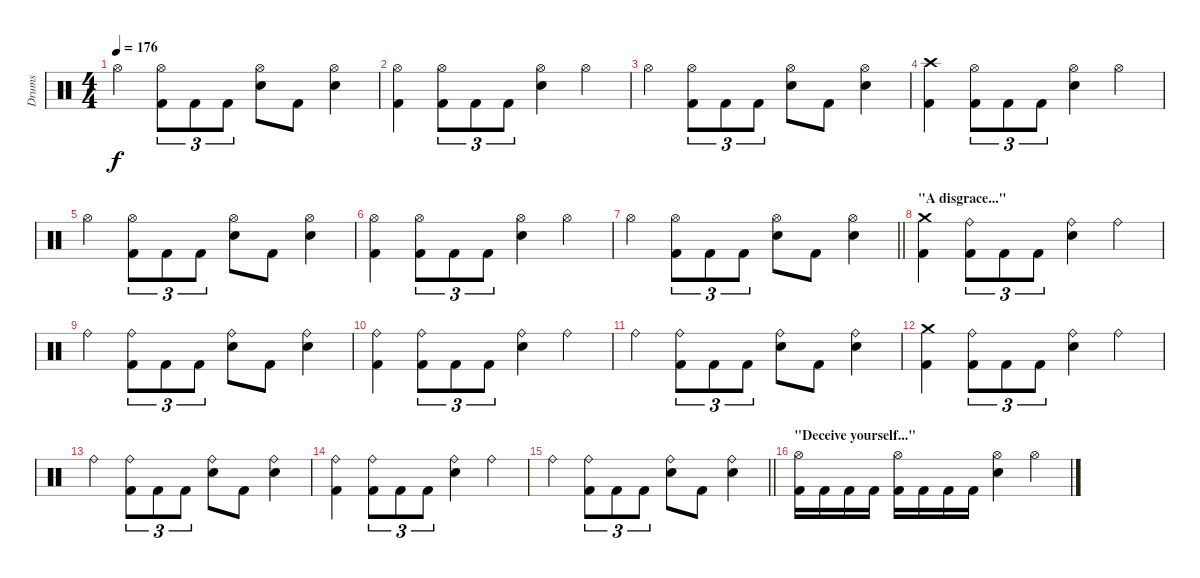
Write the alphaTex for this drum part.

\track ("Drums" "Drums") {instrument percussion}
\staff {score}
\articulation defaults
\ts (4 4)
\tempo 176
\clef neutral
\ks c "Hi-Hat (open)".4{dy f}
("Hi-Hat (open)" "Kick (hit) 2").8{tu (3 2)} "Kick (hit) 2".8{tu (3 2)} "Kick (hit) 2".8{tu (3 2)} ("Hi-Hat (open)" "Snare (hit) 2").8 "Kick (hit) 2".8 ("Hi-Hat (open)" "Snare (hit) 2").4 |
("Hi-Hat (open)" "Kick (hit) 2").4 ("Hi-Hat (open)" "Kick (hit) 2").8{tu (3 2)} "Kick (hit) 2".8{tu (3 2)} "Kick (hit) 2".8{tu (3 2)} ("Hi-Hat (open)" "Snare (hit) 2").4 "Hi-Hat (open)".4 |
"Hi-Hat (open)".4 ("Hi-Hat (open)" "Kick (hit) 2").8{tu (3 2)} "Kick (hit) 2".8{tu (3 2)} "Kick (hit) 2".8{tu (3 2)} ("Hi-Hat (open)" "Snare (hit) 2").8 "Kick (hit) 2".8 ("Hi-Hat (open)" "Snare (hit) 2").4 |
("Crash high (hit)" "Kick (hit) 2").4 ("Hi-Hat (open)" "Kick (hit) 2").8{tu (3 2)} "Kick (hit) 2".8{tu (3 2)} "Kick (hit) 2".8{tu (3 2)} ("Hi-Hat (open)" "Snare (hit) 2").4 "Hi-Hat (open)".4 |
"Hi-Hat (open)".4 ("Hi-Hat (open)" "Kick (hit) 2").8{tu (3 2)} "Kick (hit) 2".8{tu (3 2)} "Kick (hit) 2".8{tu (3 2)} ("Hi-Hat (open)" "Snare (hit) 2").8 "Kick (hit) 2".8 ("Hi-Hat (open)" "Snare (hit) 2").4 |
("Hi-Hat (open)" "Kick (hit) 2").4 ("Hi-Hat (open)" "Kick (hit) 2").8{tu (3 2)} "Kick (hit) 2".8{tu (3 2)} "Kick (hit) 2".8{tu (3 2)} ("Hi-Hat (open)" "Snare (hit) 2").4 "Hi-Hat (open)".4 |
\barLineRight lightlight "Hi-Hat (open)".4
("Hi-Hat (open)" "Kick (hit) 2").8{tu (3 2)} "Kick (hit) 2".8{tu (3 2)} "Kick (hit) 2".8{tu (3 2)} ("Hi-Hat (open)" "Snare (hit) 2").8 "Kick (hit) 2".8 ("Hi-Hat (open)" "Snare (hit) 2").4 |
\section ("" "\"A disgrace...\"")
("Crash medium (hit)" "Kick (hit) 2").4 ("Ride (bell)" "Kick (hit) 2").8{tu (3 2)} "Kick (hit) 2".8{tu (3 2)} "Kick (hit) 2".8{tu (3 2)} ("Ride (bell)" "Snare (hit) 2").4 "Ride (bell)".4 |
"Ride (bell)".4 ("Ride (bell)" "Kick (hit) 2").8{tu (3 2)} "Kick (hit) 2".8{tu (3 2)} "Kick (hit) 2".8{tu (3 2)} ("Ride (bell)" "Snare (hit) 2").8 "Kick (hit) 2".8 ("Ride (bell)" "Snare (hit) 2").4 |
("Ride (bell)" "Kick (hit) 2").4 ("Ride (bell)" "Kick (hit) 2").8{tu (3 2)} "Kick (hit) 2".8{tu (3 2)} "Kick (hit) 2".8{tu (3 2)} ("Ride (bell)" "Snare (hit) 2").4 "Ride (bell)".4 |
"Ride (bell)".4 ("Ride (bell)" "Kick (hit) 2").8{tu (3 2)} "Kick (hit) 2".8{tu (3 2)} "Kick (hit) 2".8{tu (3 2)} ("Ride (bell)" "Snare (hit) 2").8 "Kick (hit) 2".8 ("Ride (bell)" "Snare (hit) 2").4 |
("Crash medium (hit)" "Kick (hit) 2").4 ("Ride (bell)" "Kick (hit) 2").8{tu (3 2)} "Kick (hit) 2".8{tu (3 2)} "Kick (hit) 2".8{tu (3 2)} ("Ride (bell)" "Snare (hit) 2").4 "Ride (bell)".4 |
"Ride (bell)".4 ("Ride (bell)" "Kick (hit) 2").8{tu (3 2)} "Kick (hit) 2".8{tu (3 2)} "Kick (hit) 2".8{tu (3 2)} ("Ride (bell)" "Snare (hit) 2").8 "Kick (hit) 2".8 ("Ride (bell)" "Snare (hit) 2").4 |
("Ride (bell)" "Kick (hit) 2").4 ("Ride (bell)" "Kick (hit) 2").8{tu (3 2)} "Kick (hit) 2".8{tu (3 2)} "Kick (hit) 2".8{tu (3 2)} ("Ride (bell)" "Snare (hit) 2").4 "Ride (bell)".4 |
\barLineRight lightlight "Ride (bell)".4
("Ride (bell)" "Kick (hit) 2").8{tu (3 2)} "Kick (hit) 2".8{tu (3 2)} "Kick (hit) 2".8{tu (3 2)} ("Ride (bell)" "Snare (hit) 2").8 "Kick (hit) 2".8 ("Ride (bell)" "Snare (hit) 2").4 |
\section ("" "\"Deceive yourself...\"")
("Hi-Hat (open)" "Kick (hit) 2").16 "Kick (hit) 2".16 "Kick (hit) 2".16 "Kick (hit) 2".16 ("Hi-Hat (open)" "Kick (hit) 2").16 "Kick (hit) 2".16 "Kick (hit) 2".16 "Kick (hit) 2".16 ("Hi-Hat (open)" "Snare (hit) 2").4 "Hi-Hat (open)".4
